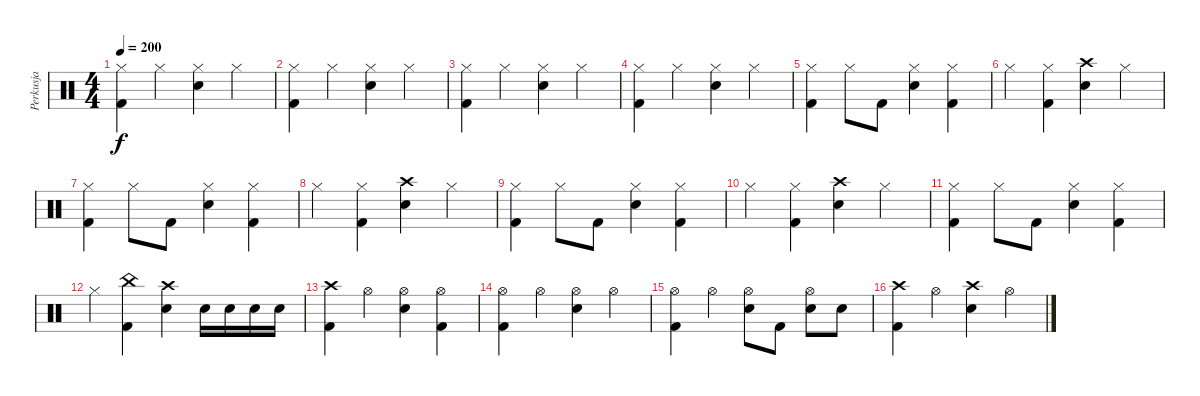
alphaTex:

\track ("Perkusja" "Perkusja") {instrument percussion}
\staff {score}
\articulation defaults
\ts (4 4)
\tempo 200
\clef neutral
\ks c
("Hi-Hat (closed)" "Kick (hit) 2").4{dy f} "Hi-Hat (closed)".4 ("Hi-Hat (closed)" "Snare (hit) 2").4 "Hi-Hat (closed)".4 |
("Hi-Hat (closed)" "Kick (hit) 2").4 "Hi-Hat (closed)".4 ("Hi-Hat (closed)" "Snare (hit) 2").4 "Hi-Hat (closed)".4 |
("Hi-Hat (closed)" "Kick (hit) 2").4 "Hi-Hat (closed)".4 ("Hi-Hat (closed)" "Snare (hit) 2").4 "Hi-Hat (closed)".4 |
("Hi-Hat (closed)" "Kick (hit) 2").4 "Hi-Hat (closed)".4 ("Hi-Hat (closed)" "Snare (hit) 2").4 "Hi-Hat (closed)".4 |
("Hi-Hat (closed)" "Kick (hit) 2").4 "Hi-Hat (closed)".8 "Kick (hit) 2".8 ("Hi-Hat (closed)" "Snare (hit) 2").4 ("Hi-Hat (closed)" "Kick (hit) 2").4 |
"Hi-Hat (closed)".4 ("Hi-Hat (closed)" "Kick (hit) 2").4 ("Crash high (hit)" "Snare (hit) 2").4 "Hi-Hat (closed)".4 |
("Hi-Hat (closed)" "Kick (hit) 2").4 "Hi-Hat (closed)".8 "Kick (hit) 2".8 ("Hi-Hat (closed)" "Snare (hit) 2").4 ("Hi-Hat (closed)" "Kick (hit) 2").4 |
"Hi-Hat (closed)".4 ("Hi-Hat (closed)" "Kick (hit) 2").4 ("Crash high (hit)" "Snare (hit) 2").4 "Hi-Hat (closed)".4 |
("Hi-Hat (closed)" "Kick (hit) 2").4 "Hi-Hat (closed)".8 "Kick (hit) 2".8 ("Hi-Hat (closed)" "Snare (hit) 2").4 ("Hi-Hat (closed)" "Kick (hit) 2").4 |
"Hi-Hat (closed)".4 ("Hi-Hat (closed)" "Kick (hit) 2").4 ("Crash high (hit)" "Snare (hit) 2").4 "Hi-Hat (closed)".4 |
("Hi-Hat (closed)" "Kick (hit) 2").4 "Hi-Hat (closed)".8 "Kick (hit) 2".8 ("Hi-Hat (closed)" "Snare (hit) 2").4 ("Hi-Hat (closed)" "Kick (hit) 2").4 |
"Hi-Hat (closed)".4 ("China (hit)" "Kick (hit) 2").4 ("Crash high (hit)" "Snare (hit) 2").4 "Electric Snare (hit)".16 "Electric Snare (hit)".16 "Electric Snare (hit)".16 "Electric Snare (hit)".16 |
("Crash high (hit)" "Kick (hit) 2").4 "Hi-Hat (open)".4 ("Hi-Hat (open)" "Snare (hit) 2").4 ("Hi-Hat (open)" "Kick (hit) 2").4 |
("Hi-Hat (open)" "Kick (hit) 2").4 "Hi-Hat (open)".4 ("Hi-Hat (open)" "Snare (hit) 2").4 "Hi-Hat (open)".4 |
("Hi-Hat (open)" "Kick (hit) 2").4 "Hi-Hat (open)".4 ("Hi-Hat (open)" "Snare (hit) 2").8 "Kick (hit) 2".8 ("Hi-Hat (open)" "Electric Snare (hit)").8 "Electric Snare (hit)".8 |
("Crash high (hit)" "Kick (hit) 2").4 "Hi-Hat (open)".4 ("Crash high (hit)" "Snare (hit) 2").4 "Hi-Hat (open)".4
